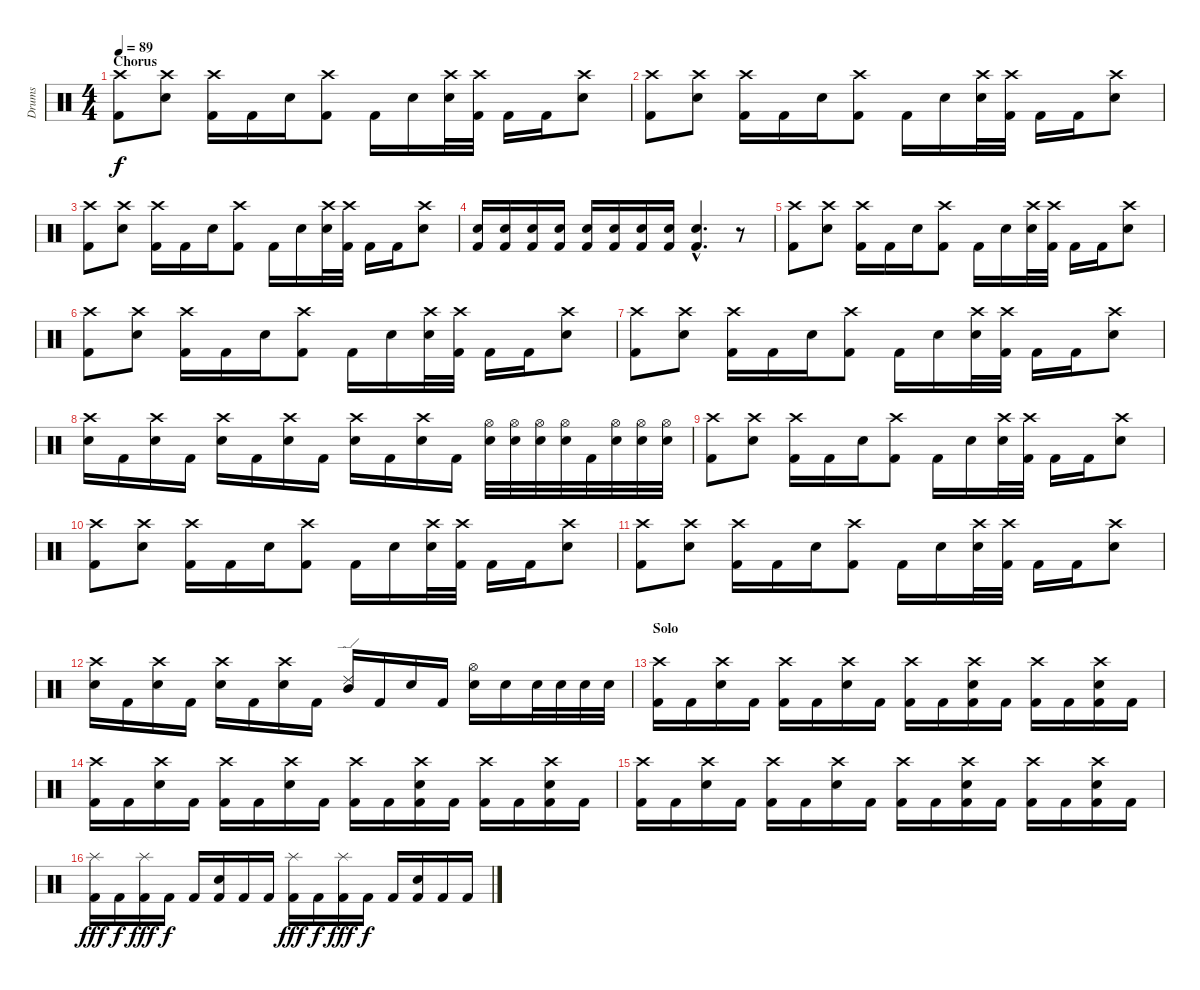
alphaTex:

\track ("Drums" "Drums") {instrument percussion}
\staff {score}
\articulation defaults
\ts (4 4)
\section ("" "Chorus")
\tempo 89
\clef neutral
\ks c
("Crash high (hit)" "Kick (hit) 2").8{dy f} ("Crash high (hit)" "Electric Snare (hit)").8 ("Crash high (hit)" "Kick (hit) 2").16 "Kick (hit) 2".16 "Electric Snare (hit)".16 ("Crash high (hit)" "Kick (hit) 2").8 "Kick (hit) 2".16 "Electric Snare (hit)".16 ("Crash high (hit)" "Electric Snare (hit)").32 ("Crash high (hit)" "Kick (hit) 2").32 "Kick (hit) 2".16 "Kick (hit) 2".16 ("Crash high (hit)" "Electric Snare (hit)").8 |
("Crash high (hit)" "Kick (hit) 2").8 ("Crash high (hit)" "Electric Snare (hit)").8 ("Crash high (hit)" "Kick (hit) 2").16 "Kick (hit) 2".16 "Electric Snare (hit)".16 ("Crash high (hit)" "Kick (hit) 2").8 "Kick (hit) 2".16 "Electric Snare (hit)".16 ("Crash high (hit)" "Electric Snare (hit)").32 ("Crash high (hit)" "Kick (hit) 2").32 "Kick (hit) 2".16 "Kick (hit) 2".16 ("Crash high (hit)" "Electric Snare (hit)").8 |
("Crash high (hit)" "Kick (hit) 2").8 ("Crash high (hit)" "Electric Snare (hit)").8 ("Crash high (hit)" "Kick (hit) 2").16 "Kick (hit) 2".16 "Electric Snare (hit)".16 ("Crash high (hit)" "Kick (hit) 2").8 "Kick (hit) 2".16 "Electric Snare (hit)".16 ("Crash high (hit)" "Electric Snare (hit)").32 ("Crash high (hit)" "Kick (hit) 2").32 "Kick (hit) 2".16 "Kick (hit) 2".16 ("Crash high (hit)" "Electric Snare (hit)").8 |
("Electric Snare (hit)" "Kick (hit) 2").16 ("Electric Snare (hit)" "Kick (hit) 2").16 ("Electric Snare (hit)" "Kick (hit) 2").16 ("Electric Snare (hit)" "Kick (hit) 2").16 ("Electric Snare (hit)" "Kick (hit) 2").16 ("Electric Snare (hit)" "Kick (hit) 2").16 ("Electric Snare (hit)" "Kick (hit) 2").16 ("Electric Snare (hit)" "Kick (hit) 2").16 ("Electric Snare (hit)"{hac} "Kick (hit) 2"{hac}).4{d} r.8 |
("Crash high (hit)" "Kick (hit) 2").8 ("Crash high (hit)" "Electric Snare (hit)").8 ("Crash high (hit)" "Kick (hit) 2").16 "Kick (hit) 2".16 "Electric Snare (hit)".16 ("Crash high (hit)" "Kick (hit) 2").8 "Kick (hit) 2".16 "Electric Snare (hit)".16 ("Crash high (hit)" "Electric Snare (hit)").32 ("Crash high (hit)" "Kick (hit) 2").32 "Kick (hit) 2".16 "Kick (hit) 2".16 ("Crash high (hit)" "Electric Snare (hit)").8 |
("Crash high (hit)" "Kick (hit) 2").8 ("Crash high (hit)" "Electric Snare (hit)").8 ("Crash high (hit)" "Kick (hit) 2").16 "Kick (hit) 2".16 "Electric Snare (hit)".16 ("Crash high (hit)" "Kick (hit) 2").8 "Kick (hit) 2".16 "Electric Snare (hit)".16 ("Crash high (hit)" "Electric Snare (hit)").32 ("Crash high (hit)" "Kick (hit) 2").32 "Kick (hit) 2".16 "Kick (hit) 2".16 ("Crash high (hit)" "Electric Snare (hit)").8 |
("Crash high (hit)" "Kick (hit) 2").8 ("Crash high (hit)" "Electric Snare (hit)").8 ("Crash high (hit)" "Kick (hit) 2").16 "Kick (hit) 2".16 "Electric Snare (hit)".16 ("Crash high (hit)" "Kick (hit) 2").8 "Kick (hit) 2".16 "Electric Snare (hit)".16 ("Crash high (hit)" "Electric Snare (hit)").32 ("Crash high (hit)" "Kick (hit) 2").32 "Kick (hit) 2".16 "Kick (hit) 2".16 ("Crash high (hit)" "Electric Snare (hit)").8 |
("Crash high (hit)" "Electric Snare (hit)").16 "Kick (hit) 2".16 ("Crash high (hit)" "Electric Snare (hit)").16 "Kick (hit) 2".16 ("Crash high (hit)" "Electric Snare (hit)").16 "Kick (hit) 2".16 ("Crash high (hit)" "Electric Snare (hit)").16 "Kick (hit) 2".16 ("Crash high (hit)" "Electric Snare (hit)").16 "Kick (hit) 2".16 ("Crash high (hit)" "Electric Snare (hit)").16 "Kick (hit) 2".16 ("Hi-Hat (open)" "Electric Snare (hit)").32 ("Hi-Hat (open)" "Electric Snare (hit)").32 ("Hi-Hat (open)" "Electric Snare (hit)").32 ("Hi-Hat (open)" "Electric Snare (hit)").32 "Kick (hit) 2".32 ("Hi-Hat (open)" "Electric Snare (hit)").32 ("Hi-Hat (open)" "Electric Snare (hit)").32 ("Hi-Hat (open)" "Electric Snare (hit)").32 |
("Crash high (hit)" "Kick (hit) 2").8 ("Crash high (hit)" "Electric Snare (hit)").8 ("Crash high (hit)" "Kick (hit) 2").16 "Kick (hit) 2".16 "Electric Snare (hit)".16 ("Crash high (hit)" "Kick (hit) 2").8 "Kick (hit) 2".16 "Electric Snare (hit)".16 ("Crash high (hit)" "Electric Snare (hit)").32 ("Crash high (hit)" "Kick (hit) 2").32 "Kick (hit) 2".16 "Kick (hit) 2".16 ("Crash high (hit)" "Electric Snare (hit)").8 |
("Crash high (hit)" "Kick (hit) 2").8 ("Crash high (hit)" "Electric Snare (hit)").8 ("Crash high (hit)" "Kick (hit) 2").16 "Kick (hit) 2".16 "Electric Snare (hit)".16 ("Crash high (hit)" "Kick (hit) 2").8 "Kick (hit) 2".16 "Electric Snare (hit)".16 ("Crash high (hit)" "Electric Snare (hit)").32 ("Crash high (hit)" "Kick (hit) 2").32 "Kick (hit) 2".16 "Kick (hit) 2".16 ("Crash high (hit)" "Electric Snare (hit)").8 |
("Crash high (hit)" "Kick (hit) 2").8 ("Crash high (hit)" "Electric Snare (hit)").8 ("Crash high (hit)" "Kick (hit) 2").16 "Kick (hit) 2".16 "Electric Snare (hit)".16 ("Crash high (hit)" "Kick (hit) 2").8 "Kick (hit) 2".16 "Electric Snare (hit)".16 ("Crash high (hit)" "Electric Snare (hit)").32 ("Crash high (hit)" "Kick (hit) 2").32 "Kick (hit) 2".16 "Kick (hit) 2".16 ("Crash high (hit)" "Electric Snare (hit)").8 |
("Crash high (hit)" "Electric Snare (hit)").16 "Kick (hit) 2".16 ("Crash high (hit)" "Electric Snare (hit)").16 "Kick (hit) 2".16 ("Crash high (hit)" "Electric Snare (hit)").16 "Kick (hit) 2".16 ("Crash high (hit)" "Electric Snare (hit)").16 "Kick (hit) 2".16 ("Ride (edge) 2" "Mid Tom (hit)").16 "Kick (hit) 2".16 "Electric Snare (hit)".16 "Kick (hit) 2".16 ("Hi-Hat (open)" "Electric Snare (hit)").16 "Electric Snare (hit)".16 "Electric Snare (hit)".32 "Electric Snare (hit)".32 "Electric Snare (hit)".32 "Electric Snare (hit)".32 |
\section ("" "Solo")
("Crash high (hit)" "Kick (hit) 2").16 "Kick (hit) 2".16 ("Crash high (hit)" "Electric Snare (hit)").16 "Kick (hit) 2".16 ("Crash high (hit)" "Kick (hit) 2").16 "Kick (hit) 2".16 ("Crash high (hit)" "Electric Snare (hit)").16 "Kick (hit) 2".16 ("Crash high (hit)" "Kick (hit) 2").16 "Kick (hit) 2".16 ("Crash high (hit)" "Electric Snare (hit)" "Kick (hit) 2").16 "Kick (hit) 2".16 ("Crash high (hit)" "Kick (hit) 2").16 "Kick (hit) 2".16 ("Crash high (hit)" "Electric Snare (hit)" "Kick (hit) 2").16 "Kick (hit) 2".16 |
("Crash high (hit)" "Kick (hit) 2").16 "Kick (hit) 2".16 ("Crash high (hit)" "Electric Snare (hit)").16 "Kick (hit) 2".16 ("Crash high (hit)" "Kick (hit) 2").16 "Kick (hit) 2".16 ("Crash high (hit)" "Electric Snare (hit)").16 "Kick (hit) 2".16 ("Crash high (hit)" "Kick (hit) 2").16 "Kick (hit) 2".16 ("Crash high (hit)" "Electric Snare (hit)" "Kick (hit) 2").16 "Kick (hit) 2".16 ("Crash high (hit)" "Kick (hit) 2").16 "Kick (hit) 2".16 ("Crash high (hit)" "Electric Snare (hit)" "Kick (hit) 2").16 "Kick (hit) 2".16 |
("Crash high (hit)" "Kick (hit) 2").16 "Kick (hit) 2".16 ("Crash high (hit)" "Electric Snare (hit)").16 "Kick (hit) 2".16 ("Crash high (hit)" "Kick (hit) 2").16 "Kick (hit) 2".16 ("Crash high (hit)" "Electric Snare (hit)").16 "Kick (hit) 2".16 ("Crash high (hit)" "Kick (hit) 2").16 "Kick (hit) 2".16 ("Crash high (hit)" "Electric Snare (hit)" "Kick (hit) 2").16 "Kick (hit) 2".16 ("Crash high (hit)" "Kick (hit) 2").16 "Kick (hit) 2".16 ("Crash high (hit)" "Electric Snare (hit)" "Kick (hit) 2").16 "Kick (hit) 2".16 |
("Splash (hit)" "Kick (hit) 2").16{dy fff} "Kick (hit) 2".16{dy f} ("Splash (hit)" "Kick (hit) 2").16{dy fff} "Kick (hit) 2".16{dy f} "Kick (hit) 2".16 ("Electric Snare (hit)" "Kick (hit) 2").16 "Kick (hit) 2".16 "Kick (hit) 2".16 ("Splash (hit)" "Kick (hit) 2").16{dy fff} "Kick (hit) 2".16{dy f} ("Splash (hit)" "Kick (hit) 2").16{dy fff} "Kick (hit) 2".16{dy f} "Kick (hit) 2".16 ("Electric Snare (hit)" "Kick (hit) 2").16 "Kick (hit) 2".16 "Kick (hit) 2".16
